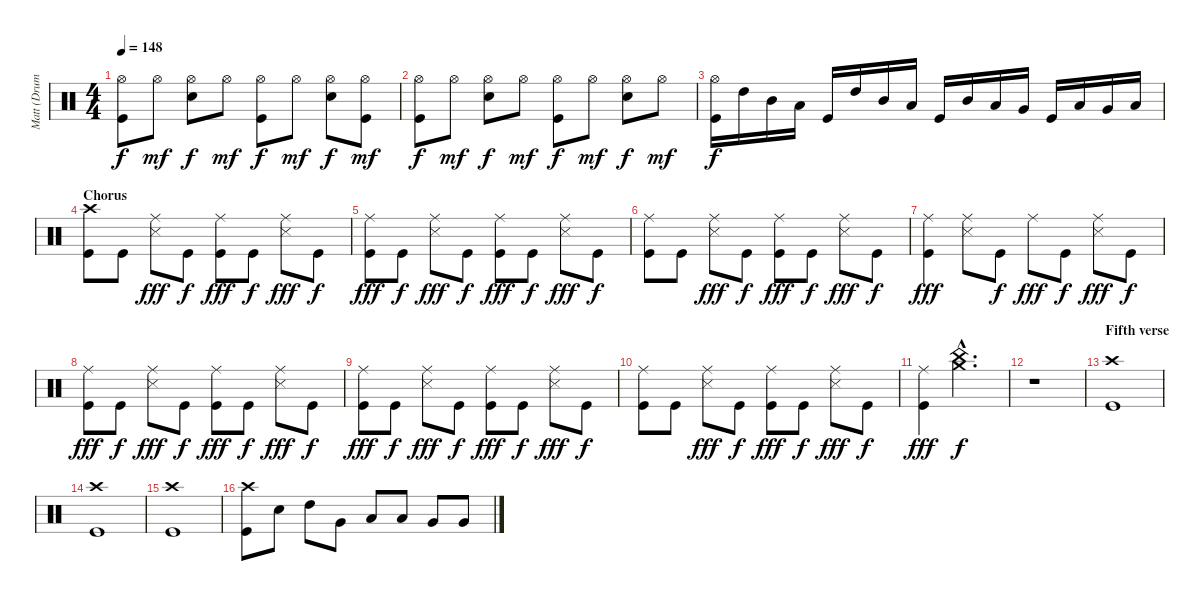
\track ("Matt (Drums)" "Matt (Drum") {instrument percussion}
\staff {score}
\articulation defaults
\ts (4 4)
\tempo 148
\clef neutral
\ks c
("Hi-Hat (open)" "Kick (hit)").8{dy f} "Hi-Hat (open)".8{dy mf} ("Hi-Hat (open)" "Electric Snare (hit)").8{dy f} "Hi-Hat (open)".8{dy mf} ("Hi-Hat (open)" "Kick (hit)").8{dy f} "Hi-Hat (open)".8{dy mf} ("Hi-Hat (open)" "Electric Snare (hit)").8{dy f} ("Hi-Hat (open)" "Kick (hit)").8{dy mf} |
("Hi-Hat (open)" "Kick (hit)").8{dy f} "Hi-Hat (open)".8{dy mf} ("Hi-Hat (open)" "Electric Snare (hit)").8{dy f} "Hi-Hat (open)".8{dy mf} ("Hi-Hat (open)" "Kick (hit)").8{dy f} "Hi-Hat (open)".8{dy mf} ("Hi-Hat (open)" "Electric Snare (hit)").8{dy f} "Hi-Hat (open)".8{dy mf} |
("Hi-Hat (open)" "Kick (hit)").16{dy f} "High Tom (hit)".16 "Mid Tom (hit)".16 "Low Tom (hit)".16 "Kick (hit)".16 "High Tom (hit)".16 "Mid Tom (hit)".16 "Low Tom (hit)".16 "Kick (hit)".16 "Mid Tom (hit)".16 "Low Tom (hit)".16 "Very Low Tom (hit)".16 "Kick (hit)".16 "Low Tom (hit)".16 "Very Low Tom (hit)".16 "Low Floor Tom (hit)".16 |
\section ("" "Chorus")
("Crash high (hit)" "Kick (hit)").8 "Kick (hit)".8 ("Ride (middle)" "Snare (side stick) 3").8{dy fff} "Kick (hit)".8{dy f} ("Ride (middle)" "Kick (hit)").8{dy fff} "Kick (hit)".8{dy f} ("Ride (middle)" "Snare (side stick) 3").8{dy fff} "Kick (hit)".8{dy f} |
("Ride (middle)" "Kick (hit)").8{dy fff} "Kick (hit)".8{dy f} ("Ride (middle)" "Snare (side stick) 3").8{dy fff} "Kick (hit)".8{dy f} ("Ride (middle)" "Kick (hit)").8{dy fff} "Kick (hit)".8{dy f} ("Ride (middle)" "Snare (side stick) 3").8{dy fff} "Kick (hit)".8{dy f} |
("Ride (middle)" "Kick (hit)").8 "Kick (hit)".8 ("Ride (middle)" "Snare (side stick) 3").8{dy fff} "Kick (hit)".8{dy f} ("Ride (middle)" "Kick (hit)").8{dy fff} "Kick (hit)".8{dy f} ("Ride (middle)" "Snare (side stick) 3").8{dy fff} "Kick (hit)".8{dy f} |
("Ride (middle)" "Kick (hit)").4{dy fff} ("Ride (middle)" "Snare (side stick) 3").8 "Kick (hit)".8{dy f} "Ride (middle)".8{dy fff} "Kick (hit)".8{dy f} ("Ride (middle)" "Snare (side stick) 3").8{dy fff} "Kick (hit)".8{dy f} |
("Ride (middle)" "Kick (hit)").8{dy fff} "Kick (hit)".8{dy f} ("Ride (middle)" "Snare (side stick) 3").8{dy fff} "Kick (hit)".8{dy f} ("Ride (middle)" "Kick (hit)").8{dy fff} "Kick (hit)".8{dy f} ("Ride (middle)" "Snare (side stick) 3").8{dy fff} "Kick (hit)".8{dy f} |
("Ride (middle)" "Kick (hit)").8{dy fff} "Kick (hit)".8{dy f} ("Ride (middle)" "Snare (side stick) 3").8{dy fff} "Kick (hit)".8{dy f} ("Ride (middle)" "Kick (hit)").8{dy fff} "Kick (hit)".8{dy f} ("Ride (middle)" "Snare (side stick) 3").8{dy fff} "Kick (hit)".8{dy f} |
("Ride (middle)" "Kick (hit)").8 "Kick (hit)".8 ("Ride (middle)" "Snare (side stick) 3").8{dy fff} "Kick (hit)".8{dy f} ("Ride (middle)" "Kick (hit)").8{dy fff} "Kick (hit)".8{dy f} ("Ride (middle)" "Snare (side stick) 3").8{dy fff} "Kick (hit)".8{dy f} |
("Ride (middle)" "Kick (hit)").4{dy fff} ("Crash medium (hit)"{hac} "China (hit)"{hac}).2{d dy f} |
r.1 |
\section ("" "Fifth verse")
("Crash high (hit)" "Kick (hit)").1 |
("Crash high (hit)" "Kick (hit)").1 |
("Crash high (hit)" "Kick (hit)").1 |
("Crash high (hit)" "Kick (hit)").8 "Electric Snare (hit)".8 "High Tom (hit)".8 "Very Low Tom (hit)".8 "Low Tom (hit)".8 "Low Tom (hit)".8 "Very Low Tom (hit)".8 "Very Low Tom (hit)".8
